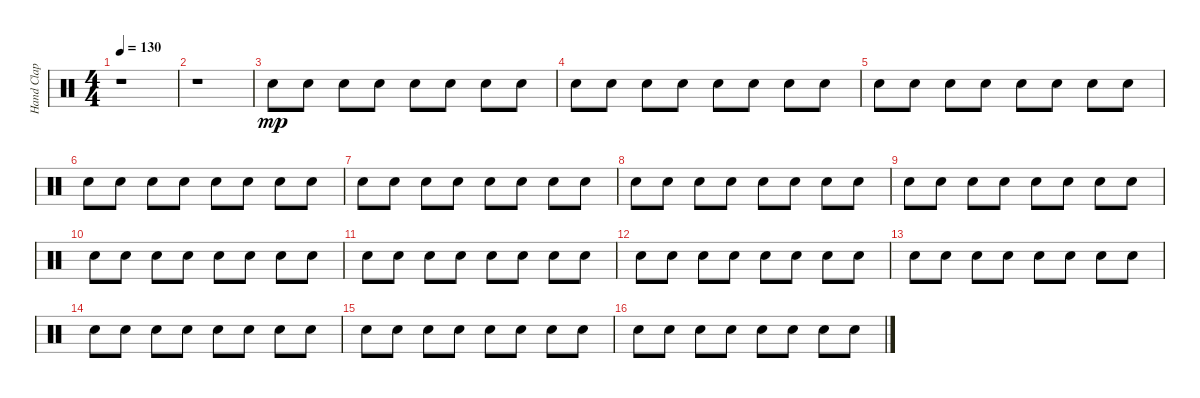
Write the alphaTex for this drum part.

\track ("Hand Clap" "Hand Clap") {instrument percussion}
\staff {score}
\articulation defaults
\ts (4 4)
\tempo 130
\clef neutral
\ks c
r.1{dy mp} |
r.1 |
"Hand Clap (hit)".8 "Hand Clap (hit)".8 "Hand Clap (hit)".8 "Hand Clap (hit)".8 "Hand Clap (hit)".8 "Hand Clap (hit)".8 "Hand Clap (hit)".8 "Hand Clap (hit)".8 |
"Hand Clap (hit)".8 "Hand Clap (hit)".8 "Hand Clap (hit)".8 "Hand Clap (hit)".8 "Hand Clap (hit)".8 "Hand Clap (hit)".8 "Hand Clap (hit)".8 "Hand Clap (hit)".8 |
"Hand Clap (hit)".8 "Hand Clap (hit)".8 "Hand Clap (hit)".8 "Hand Clap (hit)".8 "Hand Clap (hit)".8 "Hand Clap (hit)".8 "Hand Clap (hit)".8 "Hand Clap (hit)".8 |
"Hand Clap (hit)".8 "Hand Clap (hit)".8 "Hand Clap (hit)".8 "Hand Clap (hit)".8 "Hand Clap (hit)".8 "Hand Clap (hit)".8 "Hand Clap (hit)".8 "Hand Clap (hit)".8 |
"Hand Clap (hit)".8 "Hand Clap (hit)".8 "Hand Clap (hit)".8 "Hand Clap (hit)".8 "Hand Clap (hit)".8 "Hand Clap (hit)".8 "Hand Clap (hit)".8 "Hand Clap (hit)".8 |
"Hand Clap (hit)".8 "Hand Clap (hit)".8 "Hand Clap (hit)".8 "Hand Clap (hit)".8 "Hand Clap (hit)".8 "Hand Clap (hit)".8 "Hand Clap (hit)".8 "Hand Clap (hit)".8 |
"Hand Clap (hit)".8 "Hand Clap (hit)".8 "Hand Clap (hit)".8 "Hand Clap (hit)".8 "Hand Clap (hit)".8 "Hand Clap (hit)".8 "Hand Clap (hit)".8 "Hand Clap (hit)".8 |
"Hand Clap (hit)".8 "Hand Clap (hit)".8 "Hand Clap (hit)".8 "Hand Clap (hit)".8 "Hand Clap (hit)".8 "Hand Clap (hit)".8 "Hand Clap (hit)".8 "Hand Clap (hit)".8 |
"Hand Clap (hit)".8 "Hand Clap (hit)".8 "Hand Clap (hit)".8 "Hand Clap (hit)".8 "Hand Clap (hit)".8 "Hand Clap (hit)".8 "Hand Clap (hit)".8 "Hand Clap (hit)".8 |
"Hand Clap (hit)".8 "Hand Clap (hit)".8 "Hand Clap (hit)".8 "Hand Clap (hit)".8 "Hand Clap (hit)".8 "Hand Clap (hit)".8 "Hand Clap (hit)".8 "Hand Clap (hit)".8 |
"Hand Clap (hit)".8 "Hand Clap (hit)".8 "Hand Clap (hit)".8 "Hand Clap (hit)".8 "Hand Clap (hit)".8 "Hand Clap (hit)".8 "Hand Clap (hit)".8 "Hand Clap (hit)".8 |
"Hand Clap (hit)".8 "Hand Clap (hit)".8 "Hand Clap (hit)".8 "Hand Clap (hit)".8 "Hand Clap (hit)".8 "Hand Clap (hit)".8 "Hand Clap (hit)".8 "Hand Clap (hit)".8 |
"Hand Clap (hit)".8 "Hand Clap (hit)".8 "Hand Clap (hit)".8 "Hand Clap (hit)".8 "Hand Clap (hit)".8 "Hand Clap (hit)".8 "Hand Clap (hit)".8 "Hand Clap (hit)".8 |
"Hand Clap (hit)".8 "Hand Clap (hit)".8 "Hand Clap (hit)".8 "Hand Clap (hit)".8 "Hand Clap (hit)".8 "Hand Clap (hit)".8 "Hand Clap (hit)".8 "Hand Clap (hit)".8
